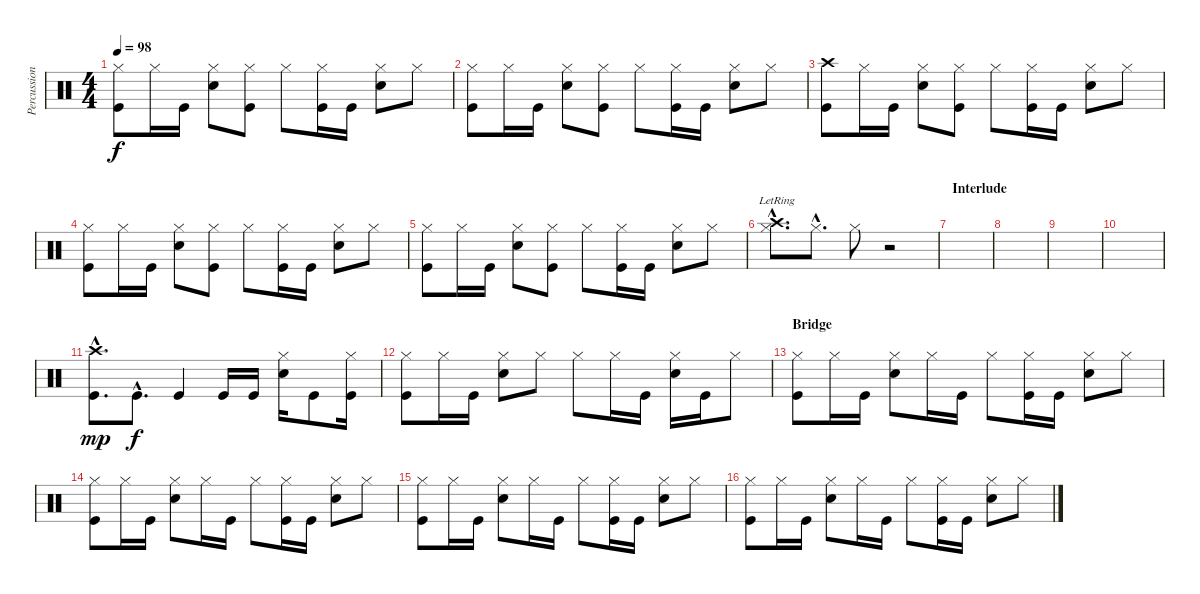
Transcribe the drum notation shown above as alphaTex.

\track ("Percussion" "Percussion") {instrument percussion}
\staff {score}
\articulation defaults
\ts (4 4)
\tempo 98
\clef neutral
\ks c
("Hi-Hat (closed)" "Kick (hit)").8{dy f volume 14} "Hi-Hat (closed)".16 "Kick (hit)".16 ("Hi-Hat (closed)" "Electric Snare (hit)").8 ("Hi-Hat (closed)" "Kick (hit)").8 "Hi-Hat (closed)".8 ("Hi-Hat (closed)" "Kick (hit)").16 "Kick (hit)".16 ("Hi-Hat (closed)" "Electric Snare (hit)").8 "Hi-Hat (closed)".8 |
("Hi-Hat (closed)" "Kick (hit)").8{volume 14} "Hi-Hat (closed)".16 "Kick (hit)".16 ("Hi-Hat (closed)" "Electric Snare (hit)").8 ("Hi-Hat (closed)" "Kick (hit)").8 "Hi-Hat (closed)".8 ("Hi-Hat (closed)" "Kick (hit)").16 "Kick (hit)".16 ("Hi-Hat (closed)" "Electric Snare (hit)").8 "Hi-Hat (closed)".8 |
("Crash high (hit)" "Kick (hit)").8{volume 14} "Hi-Hat (closed)".16 "Kick (hit)".16 ("Hi-Hat (closed)" "Electric Snare (hit)").8 ("Hi-Hat (closed)" "Kick (hit)").8 "Hi-Hat (closed)".8 ("Hi-Hat (closed)" "Kick (hit)").16 "Kick (hit)".16 ("Hi-Hat (closed)" "Electric Snare (hit)").8 "Hi-Hat (closed)".8 |
("Hi-Hat (closed)" "Kick (hit)").8{volume 14} "Hi-Hat (closed)".16 "Kick (hit)".16 ("Hi-Hat (closed)" "Electric Snare (hit)").8 ("Hi-Hat (closed)" "Kick (hit)").8 "Hi-Hat (closed)".8 ("Hi-Hat (closed)" "Kick (hit)").16 "Kick (hit)".16 ("Hi-Hat (closed)" "Electric Snare (hit)").8 "Hi-Hat (closed)".8 |
("Hi-Hat (closed)" "Kick (hit)").8{volume 14} "Hi-Hat (closed)".16 "Kick (hit)".16 ("Hi-Hat (closed)" "Electric Snare (hit)").8 ("Hi-Hat (closed)" "Kick (hit)").8 "Hi-Hat (closed)".8 ("Hi-Hat (closed)" "Kick (hit)").16 "Kick (hit)".16 ("Hi-Hat (closed)" "Electric Snare (hit)").8 "Hi-Hat (closed)".8 |
("Crash high (hit)"{hac lr} "Hi-Hat (closed)"{hac}).8{d volume 14 balance 4} "Hi-Hat (closed)"{hac}.8{d} "Hi-Hat (closed)".8 r.2 |
\section ("" "Interlude")
|
|
|
|
("Crash high (hit)"{hac} "Kick (hit)"{hac}).8{d dy mp volume 14 balance 8} "Kick (hit)"{hac}.8{d dy f} "Kick (hit)".4 "Kick (hit)".16 "Kick (hit)".16 ("Hi-Hat (closed)" "Electric Snare (hit)").16 "Kick (hit)".8 ("Hi-Hat (closed)" "Kick (hit)").16 |
("Hi-Hat (closed)" "Kick (hit)").8{volume 14} "Hi-Hat (closed)".16 "Kick (hit)".16 ("Hi-Hat (closed)" "Electric Snare (hit)").8 "Hi-Hat (closed)".8 "Hi-Hat (closed)".8 "Hi-Hat (closed)".16 "Kick (hit)".16 ("Hi-Hat (closed)" "Electric Snare (hit)").16 "Kick (hit)".16 "Hi-Hat (closed)".8 |
\section ("" "Bridge")
("Hi-Hat (closed)" "Kick (hit)").8{volume 14} "Hi-Hat (closed)".16 "Kick (hit)".16 ("Hi-Hat (closed)" "Electric Snare (hit)").8 "Hi-Hat (closed)".16 "Kick (hit)".16 "Hi-Hat (closed)".8 ("Hi-Hat (closed)" "Kick (hit)").16 "Kick (hit)".16 ("Hi-Hat (closed)" "Electric Snare (hit)").8 "Hi-Hat (closed)".8 |
("Hi-Hat (closed)" "Kick (hit)").8{volume 14} "Hi-Hat (closed)".16 "Kick (hit)".16 ("Hi-Hat (closed)" "Electric Snare (hit)").8 "Hi-Hat (closed)".16 "Kick (hit)".16 "Hi-Hat (closed)".8 ("Hi-Hat (closed)" "Kick (hit)").16 "Kick (hit)".16 ("Hi-Hat (closed)" "Electric Snare (hit)").8 "Hi-Hat (closed)".8 |
("Hi-Hat (closed)" "Kick (hit)").8{volume 14} "Hi-Hat (closed)".16 "Kick (hit)".16 ("Hi-Hat (closed)" "Electric Snare (hit)").8 "Hi-Hat (closed)".16 "Kick (hit)".16 "Hi-Hat (closed)".8 ("Hi-Hat (closed)" "Kick (hit)").16 "Kick (hit)".16 ("Hi-Hat (closed)" "Electric Snare (hit)").8 "Hi-Hat (closed)".8 |
("Hi-Hat (closed)" "Kick (hit)").8{volume 14} "Hi-Hat (closed)".16 "Kick (hit)".16 ("Hi-Hat (closed)" "Electric Snare (hit)").8 "Hi-Hat (closed)".16 "Kick (hit)".16 "Hi-Hat (closed)".8 ("Hi-Hat (closed)" "Kick (hit)").16 "Kick (hit)".16 ("Hi-Hat (closed)" "Electric Snare (hit)").8 "Hi-Hat (closed)".8
